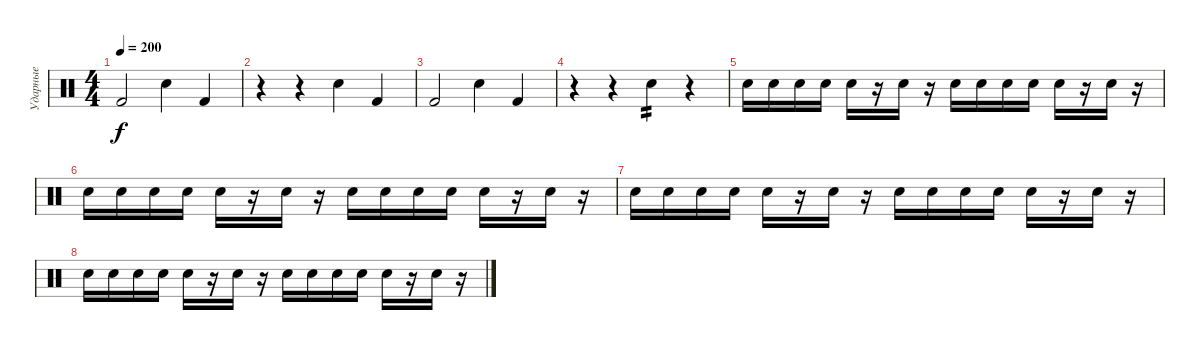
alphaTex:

\track ("Ударные" "Ударные") {instrument percussion}
\staff {score}
\articulation defaults
\ts (4 4)
\tempo 200
\clef neutral
\ks c "Kick (hit) 2".2{dy f} "Snare (hit) 2".4 "Kick (hit) 2".4
|
r.4 r.4 "Snare (hit) 2".4 "Kick (hit) 2".4 |
"Kick (hit) 2".2 "Snare (hit) 2".4 "Kick (hit) 2".4 |
r.4 r.4 "Snare (hit) 2".4{tp 2} r.4 |
"Snare (hit) 2".16{volume 8} "Snare (hit) 2".16 "Snare (hit) 2".16 "Snare (hit) 2".16 "Snare (hit) 2".16 r.16 "Snare (hit) 2".16 r.16 "Snare (hit) 2".16 "Snare (hit) 2".16 "Snare (hit) 2".16 "Snare (hit) 2".16 "Snare (hit) 2".16 r.16 "Snare (hit) 2".16 r.16 |
"Snare (hit) 2".16 "Snare (hit) 2".16 "Snare (hit) 2".16 "Snare (hit) 2".16 "Snare (hit) 2".16 r.16 "Snare (hit) 2".16 r.16 "Snare (hit) 2".16 "Snare (hit) 2".16 "Snare (hit) 2".16 "Snare (hit) 2".16 "Snare (hit) 2".16 r.16 "Snare (hit) 2".16 r.16 |
"Snare (hit) 2".16 "Snare (hit) 2".16 "Snare (hit) 2".16 "Snare (hit) 2".16 "Snare (hit) 2".16 r.16 "Snare (hit) 2".16 r.16 "Snare (hit) 2".16 "Snare (hit) 2".16 "Snare (hit) 2".16 "Snare (hit) 2".16 "Snare (hit) 2".16 r.16 "Snare (hit) 2".16 r.16 |
"Snare (hit) 2".16 "Snare (hit) 2".16 "Snare (hit) 2".16 "Snare (hit) 2".16 "Snare (hit) 2".16 r.16 "Snare (hit) 2".16 r.16 "Snare (hit) 2".16 "Snare (hit) 2".16 "Snare (hit) 2".16 "Snare (hit) 2".16 "Snare (hit) 2".16 r.16 "Snare (hit) 2".16 r.16
